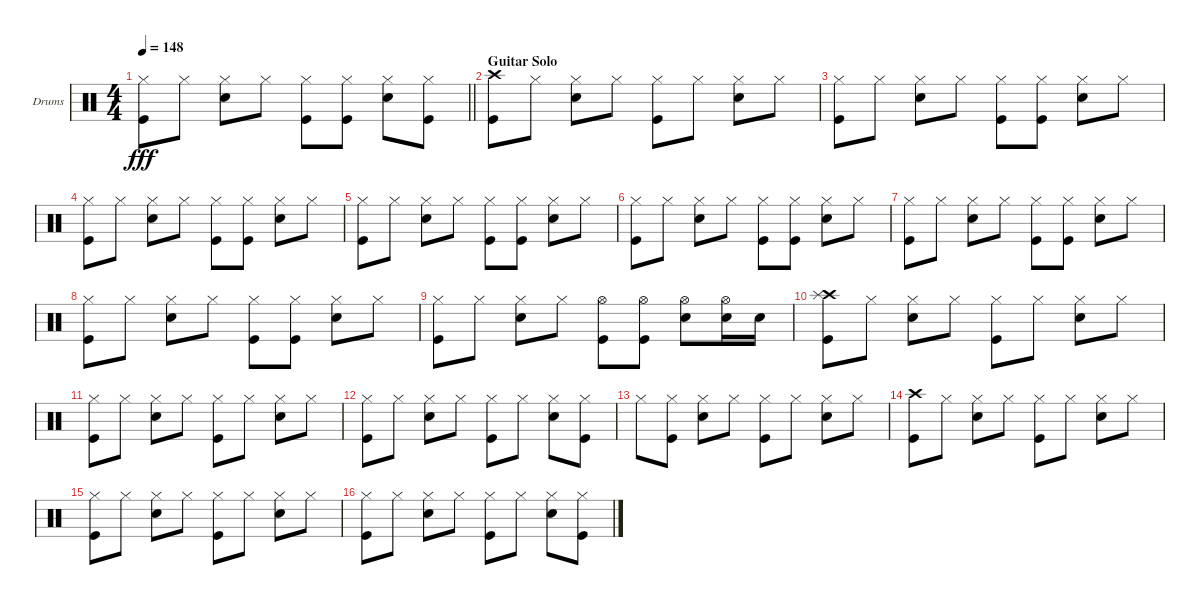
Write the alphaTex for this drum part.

\bracketExtendMode groupsimilarinstruments
\firstSystemTrackNameOrientation horizontal
\otherSystemsTrackNameOrientation horizontal
\track ("James Kottak" "Drums") {instrument percussion}
\staff {score}
\articulation defaults
\ts (4 4)
\tempo 148
\clef neutral
\barLineRight lightlight
\ks c
("Kick (hit)" "Hi-Hat (closed)").8{dy fff} "Hi-Hat (closed)".8 ("Hi-Hat (closed)" "Snare (hit) 2").8 "Hi-Hat (closed)".8 ("Hi-Hat (closed)" "Kick (hit)").8 ("Hi-Hat (closed)" "Kick (hit)").8 ("Hi-Hat (closed)" "Snare (hit) 2").8 ("Hi-Hat (closed)" "Kick (hit)").8 |
\section ("" "Guitar Solo")
("Kick (hit)" "Crash high (hit)").8 "Hi-Hat (closed)".8 ("Hi-Hat (closed)" "Snare (hit) 2").8 "Hi-Hat (closed)".8 ("Hi-Hat (closed)" "Kick (hit)").8 "Hi-Hat (closed)".8 ("Hi-Hat (closed)" "Snare (hit) 2").8 "Hi-Hat (closed)".8 |
("Hi-Hat (closed)" "Kick (hit)").8 "Hi-Hat (closed)".8 ("Hi-Hat (closed)" "Snare (hit) 2").8 "Hi-Hat (closed)".8 ("Hi-Hat (closed)" "Kick (hit)").8 ("Hi-Hat (closed)" "Kick (hit)").8 ("Hi-Hat (closed)" "Snare (hit) 2").8 "Hi-Hat (closed)".8 |
("Hi-Hat (closed)" "Kick (hit)").8 "Hi-Hat (closed)".8 ("Hi-Hat (closed)" "Snare (hit) 2").8 "Hi-Hat (closed)".8 ("Hi-Hat (closed)" "Kick (hit)").8 ("Hi-Hat (closed)" "Kick (hit)").8 ("Hi-Hat (closed)" "Snare (hit) 2").8 "Hi-Hat (closed)".8 |
("Hi-Hat (closed)" "Kick (hit)").8 "Hi-Hat (closed)".8 ("Hi-Hat (closed)" "Snare (hit) 2").8 "Hi-Hat (closed)".8 ("Hi-Hat (closed)" "Kick (hit)").8 ("Hi-Hat (closed)" "Kick (hit)").8 ("Hi-Hat (closed)" "Snare (hit) 2").8 "Hi-Hat (closed)".8 |
("Hi-Hat (closed)" "Kick (hit)").8 "Hi-Hat (closed)".8 ("Hi-Hat (closed)" "Snare (hit) 2").8 "Hi-Hat (closed)".8 ("Hi-Hat (closed)" "Kick (hit)").8 ("Hi-Hat (closed)" "Kick (hit)").8 ("Hi-Hat (closed)" "Snare (hit) 2").8 "Hi-Hat (closed)".8 |
("Hi-Hat (closed)" "Kick (hit)").8 "Hi-Hat (closed)".8 ("Hi-Hat (closed)" "Snare (hit) 2").8 "Hi-Hat (closed)".8 ("Hi-Hat (closed)" "Kick (hit)").8 ("Hi-Hat (closed)" "Kick (hit)").8 ("Hi-Hat (closed)" "Snare (hit) 2").8 "Hi-Hat (closed)".8 |
("Hi-Hat (closed)" "Kick (hit)").8 "Hi-Hat (closed)".8 ("Hi-Hat (closed)" "Snare (hit) 2").8 "Hi-Hat (closed)".8 ("Hi-Hat (closed)" "Kick (hit)").8 ("Hi-Hat (closed)" "Kick (hit)").8 ("Hi-Hat (closed)" "Snare (hit) 2").8 "Hi-Hat (closed)".8 |
("Hi-Hat (closed)" "Kick (hit)").8 "Hi-Hat (closed)".8 ("Hi-Hat (closed)" "Snare (hit) 2").8 "Hi-Hat (closed)".8 ("Hi-Hat (open)" "Kick (hit)").8 ("Hi-Hat (open)" "Kick (hit)").8 ("Hi-Hat (open)" "Snare (hit) 2").8 ("Hi-Hat (open)" "Snare (hit) 2").16 "Snare (hit) 2".16 |
("Kick (hit)" "Crash high (hit)" "Splash (hit)").8 "Hi-Hat (closed)".8 ("Hi-Hat (closed)" "Snare (hit) 2").8 "Hi-Hat (closed)".8 ("Hi-Hat (closed)" "Kick (hit)").8 "Hi-Hat (closed)".8 ("Hi-Hat (closed)" "Snare (hit) 2").8 "Hi-Hat (closed)".8 |
("Kick (hit)" "Hi-Hat (closed)").8 "Hi-Hat (closed)".8 ("Hi-Hat (closed)" "Snare (hit) 2").8 "Hi-Hat (closed)".8 ("Hi-Hat (closed)" "Kick (hit)").8 "Hi-Hat (closed)".8 ("Hi-Hat (closed)" "Snare (hit) 2").8 "Hi-Hat (closed)".8 |
("Kick (hit)" "Hi-Hat (closed)").8 "Hi-Hat (closed)".8 ("Hi-Hat (closed)" "Snare (hit) 2").8 "Hi-Hat (closed)".8 ("Hi-Hat (closed)" "Kick (hit)").8 "Hi-Hat (closed)".8 ("Hi-Hat (closed)" "Snare (hit) 2").8 ("Hi-Hat (closed)" "Kick (hit)").8 |
"Hi-Hat (closed)".8 ("Kick (hit)" "Hi-Hat (closed)").8 ("Snare (hit) 2" "Hi-Hat (closed)").8 "Hi-Hat (closed)".8 ("Hi-Hat (closed)" "Kick (hit)").8 "Hi-Hat (closed)".8 ("Hi-Hat (closed)" "Snare (hit) 2").8 "Hi-Hat (closed)".8 |
("Kick (hit)" "Crash high (hit)").8 "Hi-Hat (closed)".8 ("Hi-Hat (closed)" "Snare (hit) 2").8 "Hi-Hat (closed)".8 ("Hi-Hat (closed)" "Kick (hit)").8 "Hi-Hat (closed)".8 ("Hi-Hat (closed)" "Snare (hit) 2").8 "Hi-Hat (closed)".8 |
("Kick (hit)" "Hi-Hat (closed)").8 "Hi-Hat (closed)".8 ("Hi-Hat (closed)" "Snare (hit) 2").8 "Hi-Hat (closed)".8 ("Hi-Hat (closed)" "Kick (hit)").8 "Hi-Hat (closed)".8 ("Hi-Hat (closed)" "Snare (hit) 2").8 "Hi-Hat (closed)".8 |
("Kick (hit)" "Hi-Hat (closed)").8 "Hi-Hat (closed)".8 ("Hi-Hat (closed)" "Snare (hit) 2").8 "Hi-Hat (closed)".8 ("Hi-Hat (closed)" "Kick (hit)").8 "Hi-Hat (closed)".8 ("Hi-Hat (closed)" "Snare (hit) 2").8 ("Hi-Hat (closed)" "Kick (hit)").8
